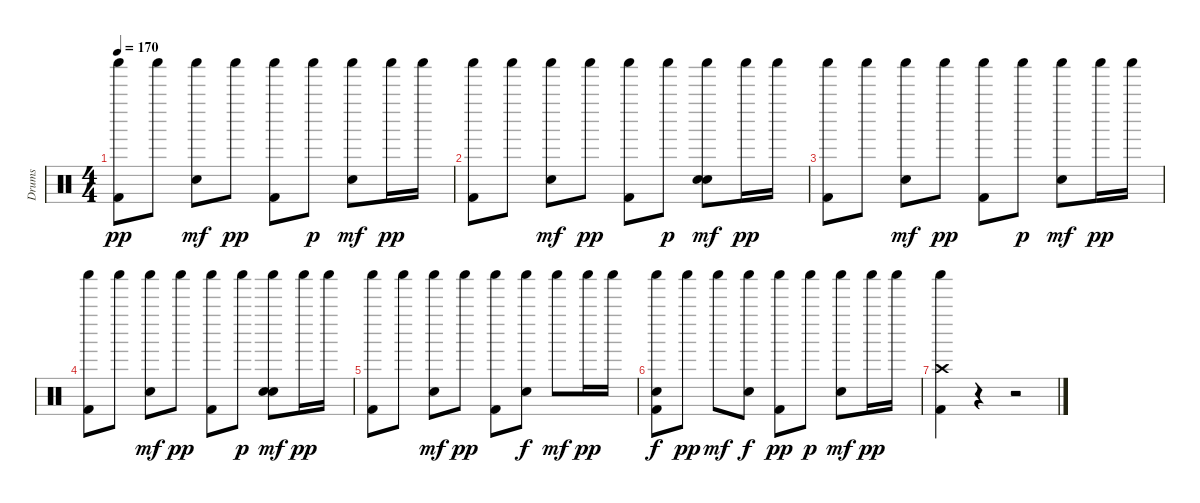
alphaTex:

\track ("Drums" "Drums") {instrument percussion}
\staff {score}
\articulation defaults
\ts (4 4)
\tempo 170
\clef neutral
\ks c
("Kick (hit) 2" "Shaker (hit)").8{dy pp} "Shaker (hit)".8 ("Snare (hit) 2" "Shaker (hit)").8{dy mf} "Shaker (hit)".8{dy pp} ("Kick (hit) 2" "Shaker (hit)").8 "Shaker (hit)".8{dy p} ("Snare (hit) 2" "Shaker (hit)").8{dy mf} "Shaker (hit)".16{dy pp} "Shaker (hit)".16 |
("Kick (hit) 2" "Shaker (hit)").8 "Shaker (hit)".8 ("Snare (hit) 2" "Shaker (hit)").8{dy mf} "Shaker (hit)".8{dy pp} ("Kick (hit) 2" "Shaker (hit)").8 "Shaker (hit)".8{dy p} ("Snare (hit) 2" "Shaker (hit)" "Hand Clap (hit)").8{dy mf} "Shaker (hit)".16{dy pp} "Shaker (hit)".16 |
("Kick (hit) 2" "Shaker (hit)").8 "Shaker (hit)".8 ("Snare (hit) 2" "Shaker (hit)").8{dy mf} "Shaker (hit)".8{dy pp} ("Kick (hit) 2" "Shaker (hit)").8 "Shaker (hit)".8{dy p} ("Snare (hit) 2" "Shaker (hit)").8{dy mf} "Shaker (hit)".16{dy pp} "Shaker (hit)".16 |
("Kick (hit) 2" "Shaker (hit)").8 "Shaker (hit)".8 ("Snare (hit) 2" "Shaker (hit)").8{dy mf} "Shaker (hit)".8{dy pp} ("Kick (hit) 2" "Shaker (hit)").8 "Shaker (hit)".8{dy p} ("Snare (hit) 2" "Shaker (hit)" "Hand Clap (hit)").8{dy mf} "Shaker (hit)".16{dy pp} "Shaker (hit)".16 |
("Kick (hit) 2" "Shaker (hit)").8 "Shaker (hit)".8 ("Snare (hit) 2" "Shaker (hit)").8{dy mf} "Shaker (hit)".8{dy pp} ("Kick (hit) 2" "Shaker (hit)").8 ("Snare (hit) 2" "Shaker (hit)").8{dy f} "Shaker (hit)".8{dy mf} "Shaker (hit)".16{dy pp} "Shaker (hit)".16 |
("Snare (hit) 2" "Kick (hit) 2" "Shaker (hit)").8{dy f} "Shaker (hit)".8{dy pp} "Shaker (hit)".8{dy mf} ("Snare (hit) 2" "Shaker (hit)").8{dy f} ("Kick (hit) 2" "Shaker (hit)").8{dy pp} "Shaker (hit)".8{dy p} ("Snare (hit) 2" "Shaker (hit)").8{dy mf} "Shaker (hit)".16{dy pp} "Shaker (hit)".16 |
("Crash high (hit)" "Kick (hit) 2" "Shaker (hit)").4 r.4 r.2
